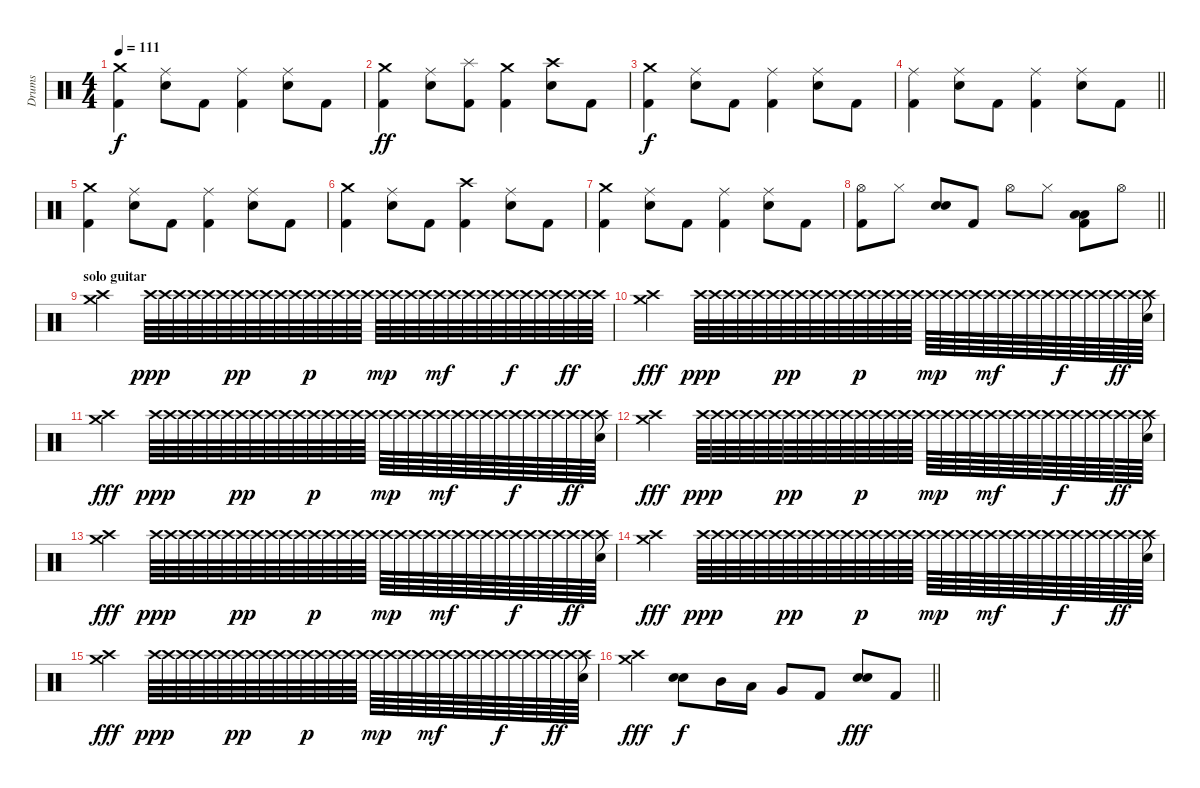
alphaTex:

\track ("Drums" "Drums") {instrument percussion}
\staff {score}
\articulation defaults
\ts (4 4)
\tempo 111
\clef neutral
\ks c
("Crash medium (hit)" "Kick (hit) 2").4{dy f} ("Ride (middle)" "Electric Snare (hit)").8 "Kick (hit) 2".8 ("Ride (middle)" "Kick (hit) 2").4 ("Ride (middle)" "Electric Snare (hit)").8 "Kick (hit) 2".8 |
("Crash medium (hit)" "Kick (hit) 2").4{dy ff} ("Ride (middle)" "Electric Snare (hit)").8 ("Splash (hit)" "Kick (hit) 2").8 ("Crash medium (hit)" "Kick (hit) 2").4 ("Crash high (hit)" "Electric Snare (hit)").8 "Kick (hit) 2".8 |
("Crash medium (hit)" "Kick (hit) 2").4{dy f} ("Ride (middle)" "Electric Snare (hit)").8 "Kick (hit) 2".8 ("Ride (middle)" "Kick (hit) 2").4 ("Ride (middle)" "Electric Snare (hit)").8 "Kick (hit) 2".8 |
\barLineRight lightlight
("Ride (middle)" "Kick (hit) 2").4 ("Ride (middle)" "Electric Snare (hit)").8 "Kick (hit) 2".8 ("Ride (middle)" "Kick (hit) 2").4 ("Ride (middle)" "Electric Snare (hit)").8 "Kick (hit) 2".8 |
("Crash medium (hit)" "Kick (hit) 2").4 ("Ride (middle)" "Electric Snare (hit)").8 "Kick (hit) 2".8 ("Ride (middle)" "Kick (hit) 2").4 ("Ride (middle)" "Electric Snare (hit)").8 "Kick (hit) 2".8 |
("Crash medium (hit)" "Kick (hit) 2").4 ("Ride (middle)" "Electric Snare (hit)").8 "Kick (hit) 2".8 ("Crash high (hit)" "Kick (hit) 2").4 ("Ride (middle)" "Electric Snare (hit)").8 "Kick (hit) 2".8 |
("Crash medium (hit)" "Kick (hit) 2").4 ("Ride (middle)" "Electric Snare (hit)").8 "Kick (hit) 2".8 ("Ride (middle)" "Kick (hit) 2").4 ("Ride (middle)" "Electric Snare (hit)").8 "Kick (hit) 2".8 |
\barLineRight lightlight
("Hi-Hat (open)" "Kick (hit) 2").8 "Hi-Hat (closed)".8 ("Electric Snare (hit)" "Electric Snare (hit)").8{bd 60} "Kick (hit) 2".8 "Hi-Hat (open)".8 "Hi-Hat (closed)".8 ("Low Tom (hit)" "Low Tom (hit)" "Kick (hit) 2").8{bd 60} "Hi-Hat (open)".8 |
\section ("" "solo guitar")
("Crash medium (hit)" "Crash high (hit)").2 "Crash high (hit)".64{dy ppp} "Crash high (hit)".64 "Crash high (hit)".64 "Crash high (hit)".64 "Crash high (hit)".64 "Crash high (hit)".64 "Crash high (hit)".64{dy pp} "Crash high (hit)".64 "Crash high (hit)".64 "Crash high (hit)".64 "Crash high (hit)".64 "Crash high (hit)".64{dy p} "Crash high (hit)".64 "Crash high (hit)".64 "Crash high (hit)".64 "Crash high (hit)".64 "Crash high (hit)".64{dy mp} "Crash high (hit)".64 "Crash high (hit)".64 "Crash high (hit)".64 "Crash high (hit)".64{dy mf} "Crash high (hit)".64 "Crash high (hit)".64 "Crash high (hit)".64 "Crash high (hit)".64 "Crash high (hit)".64{dy f} "Crash high (hit)".64 "Crash high (hit)".64 "Crash high (hit)".64 "Crash high (hit)".64{dy ff} "Crash high (hit)".64 "Crash high (hit)".64 |
("Crash medium (hit)" "Crash high (hit)").2{dy fff} "Crash high (hit)".64{dy ppp} "Crash high (hit)".64 "Crash high (hit)".64 "Crash high (hit)".64 "Crash high (hit)".64 "Crash high (hit)".64 "Crash high (hit)".64{dy pp} "Crash high (hit)".64 "Crash high (hit)".64 "Crash high (hit)".64 "Crash high (hit)".64 "Crash high (hit)".64{dy p} "Crash high (hit)".64 "Crash high (hit)".64 "Crash high (hit)".64 "Crash high (hit)".64 "Crash high (hit)".64{dy mp} "Crash high (hit)".64 "Crash high (hit)".64 "Crash high (hit)".64 "Crash high (hit)".64{dy mf} "Crash high (hit)".64 "Crash high (hit)".64 "Crash high (hit)".64 "Crash high (hit)".64 "Crash high (hit)".64{dy f} "Crash high (hit)".64 "Crash high (hit)".64 "Crash high (hit)".64 "Crash high (hit)".64{dy ff} "Crash high (hit)".64 ("Snare (hit)"{t} "Crash high (hit)").64 |
("Crash medium (hit)" "Crash high (hit)").2{dy fff} "Crash high (hit)".64{dy ppp} "Crash high (hit)".64 "Crash high (hit)".64 "Crash high (hit)".64 "Crash high (hit)".64 "Crash high (hit)".64 "Crash high (hit)".64{dy pp} "Crash high (hit)".64 "Crash high (hit)".64 "Crash high (hit)".64 "Crash high (hit)".64 "Crash high (hit)".64{dy p} "Crash high (hit)".64 "Crash high (hit)".64 "Crash high (hit)".64 "Crash high (hit)".64 "Crash high (hit)".64{dy mp} "Crash high (hit)".64 "Crash high (hit)".64 "Crash high (hit)".64 "Crash high (hit)".64{dy mf} "Crash high (hit)".64 "Crash high (hit)".64 "Crash high (hit)".64 "Crash high (hit)".64 "Crash high (hit)".64{dy f} "Crash high (hit)".64 "Crash high (hit)".64 "Crash high (hit)".64 "Crash high (hit)".64{dy ff} "Crash high (hit)".64 ("Snare (hit)"{t} "Crash high (hit)").64 |
("Crash medium (hit)" "Crash high (hit)").2{dy fff} "Crash high (hit)".64{dy ppp} "Crash high (hit)".64 "Crash high (hit)".64 "Crash high (hit)".64 "Crash high (hit)".64 "Crash high (hit)".64 "Crash high (hit)".64{dy pp} "Crash high (hit)".64 "Crash high (hit)".64 "Crash high (hit)".64 "Crash high (hit)".64 "Crash high (hit)".64{dy p} "Crash high (hit)".64 "Crash high (hit)".64 "Crash high (hit)".64 "Crash high (hit)".64 "Crash high (hit)".64{dy mp} "Crash high (hit)".64 "Crash high (hit)".64 "Crash high (hit)".64 "Crash high (hit)".64{dy mf} "Crash high (hit)".64 "Crash high (hit)".64 "Crash high (hit)".64 "Crash high (hit)".64 "Crash high (hit)".64{dy f} "Crash high (hit)".64 "Crash high (hit)".64 "Crash high (hit)".64 "Crash high (hit)".64{dy ff} "Crash high (hit)".64 ("Snare (hit)"{t} "Crash high (hit)").64 |
("Crash medium (hit)" "Crash high (hit)").2{dy fff} "Crash high (hit)".64{dy ppp} "Crash high (hit)".64 "Crash high (hit)".64 "Crash high (hit)".64 "Crash high (hit)".64 "Crash high (hit)".64 "Crash high (hit)".64{dy pp} "Crash high (hit)".64 "Crash high (hit)".64 "Crash high (hit)".64 "Crash high (hit)".64 "Crash high (hit)".64{dy p} "Crash high (hit)".64 "Crash high (hit)".64 "Crash high (hit)".64 "Crash high (hit)".64 "Crash high (hit)".64{dy mp} "Crash high (hit)".64 "Crash high (hit)".64 "Crash high (hit)".64 "Crash high (hit)".64{dy mf} "Crash high (hit)".64 "Crash high (hit)".64 "Crash high (hit)".64 "Crash high (hit)".64 "Crash high (hit)".64{dy f} "Crash high (hit)".64 "Crash high (hit)".64 "Crash high (hit)".64 "Crash high (hit)".64{dy ff} "Crash high (hit)".64 ("Snare (hit)"{t} "Crash high (hit)").64 |
("Crash medium (hit)" "Crash high (hit)").2{dy fff} "Crash high (hit)".64{dy ppp} "Crash high (hit)".64 "Crash high (hit)".64 "Crash high (hit)".64 "Crash high (hit)".64 "Crash high (hit)".64 "Crash high (hit)".64{dy pp} "Crash high (hit)".64 "Crash high (hit)".64 "Crash high (hit)".64 "Crash high (hit)".64 "Crash high (hit)".64{dy p} "Crash high (hit)".64 "Crash high (hit)".64 "Crash high (hit)".64 "Crash high (hit)".64 "Crash high (hit)".64{dy mp} "Crash high (hit)".64 "Crash high (hit)".64 "Crash high (hit)".64 "Crash high (hit)".64{dy mf} "Crash high (hit)".64 "Crash high (hit)".64 "Crash high (hit)".64 "Crash high (hit)".64 "Crash high (hit)".64{dy f} "Crash high (hit)".64 "Crash high (hit)".64 "Crash high (hit)".64 "Crash high (hit)".64{dy ff} "Crash high (hit)".64 ("Snare (hit)"{t} "Crash high (hit)").64 |
("Crash medium (hit)" "Crash high (hit)").2{dy fff} "Crash high (hit)".64{dy ppp} "Crash high (hit)".64 "Crash high (hit)".64 "Crash high (hit)".64 "Crash high (hit)".64 "Crash high (hit)".64 "Crash high (hit)".64{dy pp} "Crash high (hit)".64 "Crash high (hit)".64 "Crash high (hit)".64 "Crash high (hit)".64 "Crash high (hit)".64{dy p} "Crash high (hit)".64 "Crash high (hit)".64 "Crash high (hit)".64 "Crash high (hit)".64 "Crash high (hit)".64{dy mp} "Crash high (hit)".64 "Crash high (hit)".64 "Crash high (hit)".64 "Crash high (hit)".64{dy mf} "Crash high (hit)".64 "Crash high (hit)".64 "Crash high (hit)".64 "Crash high (hit)".64 "Crash high (hit)".64{dy f} "Crash high (hit)".64 "Crash high (hit)".64 "Crash high (hit)".64 "Crash high (hit)".64{dy ff} "Crash high (hit)".64 ("Snare (hit)"{t} "Crash high (hit)").64 |
\barLineRight lightlight
("Crash medium (hit)" "Crash high (hit)").4{dy fff} ("Electric Snare (hit)" "Electric Snare (hit)").8{bd 60 dy f} "Mid Tom (hit)".16 "Low Tom (hit)".16 "Very Low Tom (hit)".8 "Kick (hit) 2".8 ("Electric Snare (hit)" "Electric Snare (hit)").8{bd 60 dy fff} "Kick (hit) 2".8
